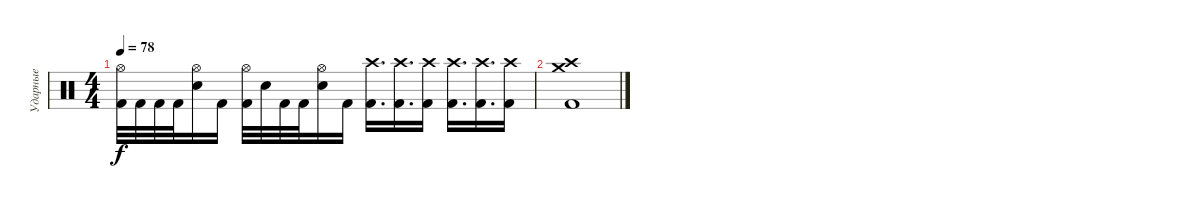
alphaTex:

\track ("Ударные" "Ударные") {instrument percussion}
\staff {score}
\articulation defaults
\ts (4 4)
\tempo 78
\clef neutral
\ks c
("Hi-Hat (open)" "Kick (hit) 2").32{dy f} "Kick (hit) 2".32 "Kick (hit) 2".32 "Kick (hit) 2".32 ("Hi-Hat (open)" "Electric Snare (hit)").16 "Kick (hit) 2".16 ("Hi-Hat (open)" "Kick (hit) 2").32 "Electric Snare (hit)".32 "Kick (hit) 2".32 "Kick (hit) 2".32 ("Hi-Hat (open)" "Electric Snare (hit)").16 "Kick (hit) 2".16 ("Crash high (hit)" "Kick (hit) 2").16{d} ("Crash high (hit)" "Kick (hit) 2").16{d} ("Crash high (hit)" "Kick (hit) 2").16 ("Crash high (hit)" "Kick (hit) 2").16{d} ("Crash high (hit)" "Kick (hit) 2").16{d} ("Crash high (hit)" "Kick (hit) 2").16 |
("Crash high (hit)" "Crash medium (hit)" "Kick (hit) 2").1
